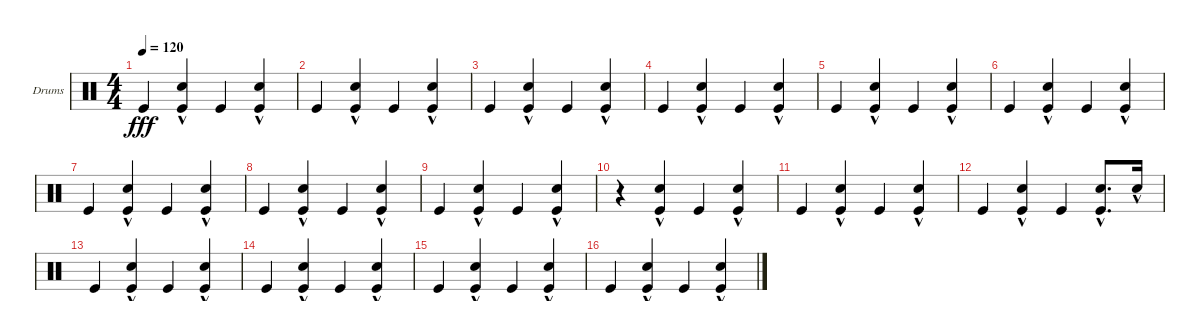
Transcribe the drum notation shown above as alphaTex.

\defaultSystemsLayout 4
\bracketExtendMode nobrackets
\firstSystemTrackNameOrientation horizontal
\otherSystemsTrackNameOrientation horizontal
\track ("Drumkit" "Drums") {instrument percussion}
\staff {score}
\articulation defaults
\ts (4 4)
\tempo 120
\clef neutral
\ks c "Kick (hit)".4{dy fff}
("Kick (hit)" "Snare (hit) 2"{hac}).4 "Kick (hit)".4 ("Kick (hit)" "Snare (hit) 2"{hac}).4 |
"Kick (hit)".4 ("Kick (hit)" "Snare (hit) 2"{hac}).4 "Kick (hit)".4 ("Kick (hit)" "Snare (hit) 2"{hac}).4 |
"Kick (hit)".4 ("Kick (hit)" "Snare (hit) 2"{hac}).4 "Kick (hit)".4 ("Kick (hit)" "Snare (hit) 2"{hac}).4 |
"Kick (hit)".4 ("Kick (hit)" "Snare (hit) 2"{hac}).4 "Kick (hit)".4 ("Kick (hit)" "Snare (hit) 2"{hac}).4 |
"Kick (hit)".4 ("Kick (hit)" "Snare (hit) 2"{hac}).4 "Kick (hit)".4 ("Kick (hit)" "Snare (hit) 2"{hac}).4 |
"Kick (hit)".4 ("Kick (hit)" "Snare (hit) 2"{hac}).4 "Kick (hit)".4 ("Kick (hit)" "Snare (hit) 2"{hac}).4 |
"Kick (hit)".4 ("Kick (hit)" "Snare (hit) 2"{hac}).4 "Kick (hit)".4 ("Kick (hit)" "Snare (hit) 2"{hac}).4 |
"Kick (hit)".4 ("Kick (hit)" "Snare (hit) 2"{hac}).4 "Kick (hit)".4 ("Kick (hit)" "Snare (hit) 2"{hac}).4 |
"Kick (hit)".4 ("Kick (hit)" "Snare (hit) 2"{hac}).4 "Kick (hit)".4 ("Kick (hit)" "Snare (hit) 2"{hac}).4 |
r.4 ("Kick (hit)" "Snare (hit) 2"{hac}).4 "Kick (hit)".4 ("Kick (hit)" "Snare (hit) 2"{hac}).4 |
"Kick (hit)".4 ("Kick (hit)" "Snare (hit) 2"{hac}).4 "Kick (hit)".4 ("Kick (hit)" "Snare (hit) 2"{hac}).4 |
"Kick (hit)".4 ("Kick (hit)" "Snare (hit) 2"{hac}).4 "Kick (hit)".4 ("Kick (hit)" "Snare (hit) 2"{hac}).8{d} "Snare (hit) 2"{hac}.16 |
"Kick (hit)".4 ("Kick (hit)" "Snare (hit) 2"{hac}).4 "Kick (hit)".4 ("Kick (hit)" "Snare (hit) 2"{hac}).4 |
"Kick (hit)".4 ("Kick (hit)" "Snare (hit) 2"{hac}).4 "Kick (hit)".4 ("Kick (hit)" "Snare (hit) 2"{hac}).4 |
"Kick (hit)".4 ("Kick (hit)" "Snare (hit) 2"{hac}).4 "Kick (hit)".4 ("Kick (hit)" "Snare (hit) 2"{hac}).4 |
"Kick (hit)".4 ("Kick (hit)" "Snare (hit) 2"{hac}).4 "Kick (hit)".4 ("Kick (hit)" "Snare (hit) 2"{hac}).4
